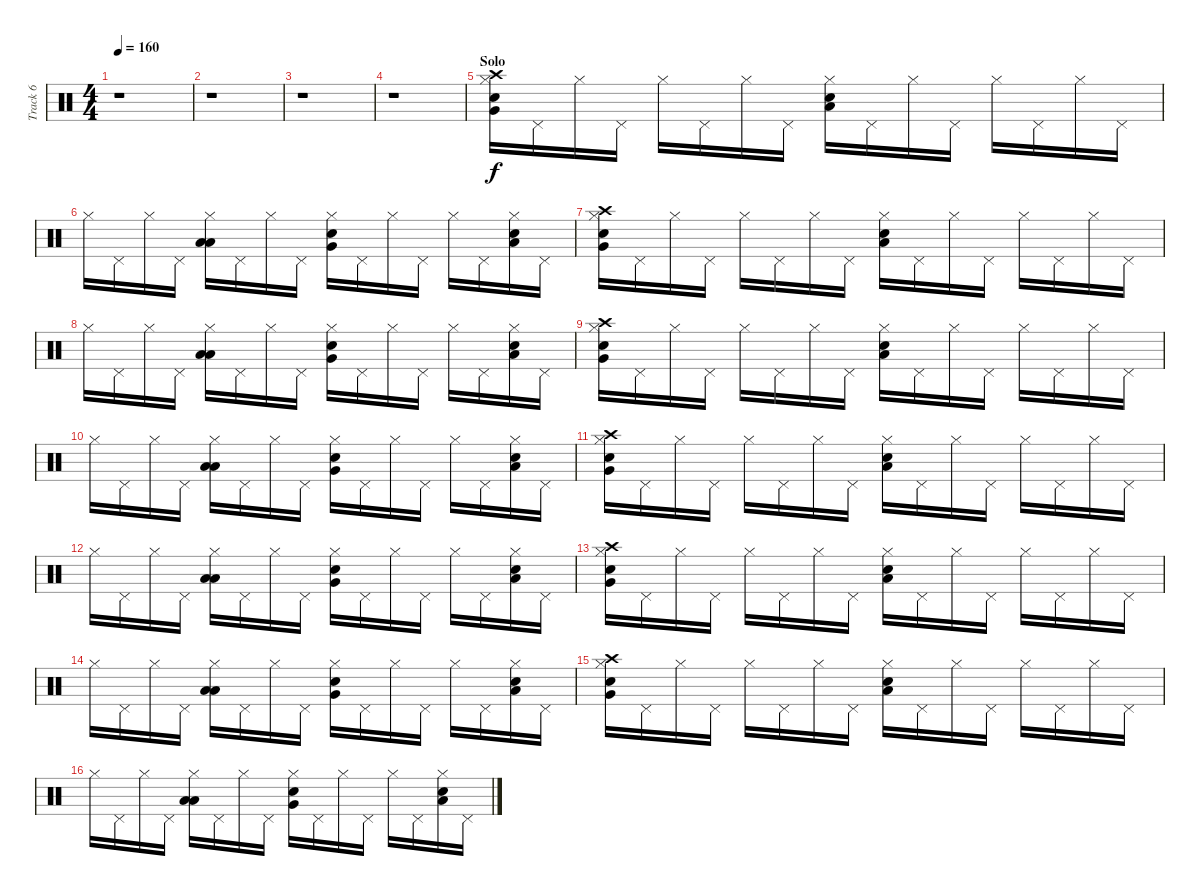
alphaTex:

\track ("Track 6" "Track 6") {instrument percussion}
\staff {score}
\articulation defaults
\ts (4 4)
\tempo 160
\clef neutral
\ks c
r.1{dy f} |
r.1 |
r.1 |
r.1 |
\section ("" "Solo")
("Very Low Tom (hit)" "Snare (hit) 2" "Crash high (hit)" "Hi-Hat (closed)").16 "Pedal Hi-Hat (hit)".16 "Hi-Hat (closed)".16 "Pedal Hi-Hat (hit)".16 "Hi-Hat (closed)".16 "Pedal Hi-Hat (hit)".16 "Hi-Hat (closed)".16 "Pedal Hi-Hat (hit)".16 ("Low Tom (hit)" "Snare (hit) 2" "Hi-Hat (closed)").16 "Pedal Hi-Hat (hit)".16 "Hi-Hat (closed)".16 "Pedal Hi-Hat (hit)".16 "Hi-Hat (closed)".16 "Pedal Hi-Hat (hit)".16 "Hi-Hat (closed)".16 "Pedal Hi-Hat (hit)".16 |
"Hi-Hat (closed)".16 "Pedal Hi-Hat (hit)".16 "Hi-Hat (closed)".16 "Pedal Hi-Hat (hit)".16 ("Hi-Hat (closed)" "Low Tom (hit)" "Low Floor Tom (hit)").16 "Pedal Hi-Hat (hit)".16 "Hi-Hat (closed)".16 "Pedal Hi-Hat (hit)".16 ("Hi-Hat (closed)" "Very Low Tom (hit)" "Snare (hit) 2").16 "Pedal Hi-Hat (hit)".16 "Hi-Hat (closed)".16 "Pedal Hi-Hat (hit)".16 "Hi-Hat (closed)".16 "Pedal Hi-Hat (hit)".16 ("Hi-Hat (closed)" "Low Tom (hit)" "Snare (hit) 2").16 "Pedal Hi-Hat (hit)".16 |
("Very Low Tom (hit)" "Snare (hit) 2" "Crash high (hit)" "Hi-Hat (closed)").16 "Pedal Hi-Hat (hit)".16 "Hi-Hat (closed)".16 "Pedal Hi-Hat (hit)".16 "Hi-Hat (closed)".16 "Pedal Hi-Hat (hit)".16 "Hi-Hat (closed)".16 "Pedal Hi-Hat (hit)".16 ("Low Tom (hit)" "Snare (hit) 2" "Hi-Hat (closed)").16 "Pedal Hi-Hat (hit)".16 "Hi-Hat (closed)".16 "Pedal Hi-Hat (hit)".16 "Hi-Hat (closed)".16 "Pedal Hi-Hat (hit)".16 "Hi-Hat (closed)".16 "Pedal Hi-Hat (hit)".16 |
"Hi-Hat (closed)".16 "Pedal Hi-Hat (hit)".16 "Hi-Hat (closed)".16 "Pedal Hi-Hat (hit)".16 ("Hi-Hat (closed)" "Low Tom (hit)" "Low Floor Tom (hit)").16 "Pedal Hi-Hat (hit)".16 "Hi-Hat (closed)".16 "Pedal Hi-Hat (hit)".16 ("Hi-Hat (closed)" "Very Low Tom (hit)" "Snare (hit) 2").16 "Pedal Hi-Hat (hit)".16 "Hi-Hat (closed)".16 "Pedal Hi-Hat (hit)".16 "Hi-Hat (closed)".16 "Pedal Hi-Hat (hit)".16 ("Hi-Hat (closed)" "Low Tom (hit)" "Snare (hit) 2").16 "Pedal Hi-Hat (hit)".16 |
("Very Low Tom (hit)" "Snare (hit) 2" "Crash high (hit)" "Hi-Hat (closed)").16 "Pedal Hi-Hat (hit)".16 "Hi-Hat (closed)".16 "Pedal Hi-Hat (hit)".16 "Hi-Hat (closed)".16 "Pedal Hi-Hat (hit)".16 "Hi-Hat (closed)".16 "Pedal Hi-Hat (hit)".16 ("Low Tom (hit)" "Snare (hit) 2" "Hi-Hat (closed)").16 "Pedal Hi-Hat (hit)".16 "Hi-Hat (closed)".16 "Pedal Hi-Hat (hit)".16 "Hi-Hat (closed)".16 "Pedal Hi-Hat (hit)".16 "Hi-Hat (closed)".16 "Pedal Hi-Hat (hit)".16 |
"Hi-Hat (closed)".16 "Pedal Hi-Hat (hit)".16 "Hi-Hat (closed)".16 "Pedal Hi-Hat (hit)".16 ("Hi-Hat (closed)" "Low Tom (hit)" "Low Floor Tom (hit)").16 "Pedal Hi-Hat (hit)".16 "Hi-Hat (closed)".16 "Pedal Hi-Hat (hit)".16 ("Hi-Hat (closed)" "Very Low Tom (hit)" "Snare (hit) 2").16 "Pedal Hi-Hat (hit)".16 "Hi-Hat (closed)".16 "Pedal Hi-Hat (hit)".16 "Hi-Hat (closed)".16 "Pedal Hi-Hat (hit)".16 ("Hi-Hat (closed)" "Low Tom (hit)" "Snare (hit) 2").16 "Pedal Hi-Hat (hit)".16 |
("Very Low Tom (hit)" "Snare (hit) 2" "Crash high (hit)" "Hi-Hat (closed)").16 "Pedal Hi-Hat (hit)".16 "Hi-Hat (closed)".16 "Pedal Hi-Hat (hit)".16 "Hi-Hat (closed)".16 "Pedal Hi-Hat (hit)".16 "Hi-Hat (closed)".16 "Pedal Hi-Hat (hit)".16 ("Low Tom (hit)" "Snare (hit) 2" "Hi-Hat (closed)").16 "Pedal Hi-Hat (hit)".16 "Hi-Hat (closed)".16 "Pedal Hi-Hat (hit)".16 "Hi-Hat (closed)".16 "Pedal Hi-Hat (hit)".16 "Hi-Hat (closed)".16 "Pedal Hi-Hat (hit)".16 |
"Hi-Hat (closed)".16 "Pedal Hi-Hat (hit)".16 "Hi-Hat (closed)".16 "Pedal Hi-Hat (hit)".16 ("Hi-Hat (closed)" "Low Tom (hit)" "Low Floor Tom (hit)").16 "Pedal Hi-Hat (hit)".16 "Hi-Hat (closed)".16 "Pedal Hi-Hat (hit)".16 ("Hi-Hat (closed)" "Very Low Tom (hit)" "Snare (hit) 2").16 "Pedal Hi-Hat (hit)".16 "Hi-Hat (closed)".16 "Pedal Hi-Hat (hit)".16 "Hi-Hat (closed)".16 "Pedal Hi-Hat (hit)".16 ("Hi-Hat (closed)" "Low Tom (hit)" "Snare (hit) 2").16 "Pedal Hi-Hat (hit)".16 |
("Very Low Tom (hit)" "Snare (hit) 2" "Crash high (hit)" "Hi-Hat (closed)").16 "Pedal Hi-Hat (hit)".16 "Hi-Hat (closed)".16 "Pedal Hi-Hat (hit)".16 "Hi-Hat (closed)".16 "Pedal Hi-Hat (hit)".16 "Hi-Hat (closed)".16 "Pedal Hi-Hat (hit)".16 ("Low Tom (hit)" "Snare (hit) 2" "Hi-Hat (closed)").16 "Pedal Hi-Hat (hit)".16 "Hi-Hat (closed)".16 "Pedal Hi-Hat (hit)".16 "Hi-Hat (closed)".16 "Pedal Hi-Hat (hit)".16 "Hi-Hat (closed)".16 "Pedal Hi-Hat (hit)".16 |
"Hi-Hat (closed)".16 "Pedal Hi-Hat (hit)".16 "Hi-Hat (closed)".16 "Pedal Hi-Hat (hit)".16 ("Hi-Hat (closed)" "Low Tom (hit)" "Low Floor Tom (hit)").16 "Pedal Hi-Hat (hit)".16 "Hi-Hat (closed)".16 "Pedal Hi-Hat (hit)".16 ("Hi-Hat (closed)" "Very Low Tom (hit)" "Snare (hit) 2").16 "Pedal Hi-Hat (hit)".16 "Hi-Hat (closed)".16 "Pedal Hi-Hat (hit)".16 "Hi-Hat (closed)".16 "Pedal Hi-Hat (hit)".16 ("Hi-Hat (closed)" "Low Tom (hit)" "Snare (hit) 2").16 "Pedal Hi-Hat (hit)".16 |
("Very Low Tom (hit)" "Snare (hit) 2" "Crash high (hit)" "Hi-Hat (closed)").16 "Pedal Hi-Hat (hit)".16 "Hi-Hat (closed)".16 "Pedal Hi-Hat (hit)".16 "Hi-Hat (closed)".16 "Pedal Hi-Hat (hit)".16 "Hi-Hat (closed)".16 "Pedal Hi-Hat (hit)".16 ("Low Tom (hit)" "Snare (hit) 2" "Hi-Hat (closed)").16 "Pedal Hi-Hat (hit)".16 "Hi-Hat (closed)".16 "Pedal Hi-Hat (hit)".16 "Hi-Hat (closed)".16 "Pedal Hi-Hat (hit)".16 "Hi-Hat (closed)".16 "Pedal Hi-Hat (hit)".16 |
"Hi-Hat (closed)".16 "Pedal Hi-Hat (hit)".16 "Hi-Hat (closed)".16 "Pedal Hi-Hat (hit)".16 ("Hi-Hat (closed)" "Low Tom (hit)" "Low Floor Tom (hit)").16 "Pedal Hi-Hat (hit)".16 "Hi-Hat (closed)".16 "Pedal Hi-Hat (hit)".16 ("Hi-Hat (closed)" "Very Low Tom (hit)" "Snare (hit) 2").16 "Pedal Hi-Hat (hit)".16 "Hi-Hat (closed)".16 "Pedal Hi-Hat (hit)".16 "Hi-Hat (closed)".16 "Pedal Hi-Hat (hit)".16 ("Hi-Hat (closed)" "Low Tom (hit)" "Snare (hit) 2").16 "Pedal Hi-Hat (hit)".16
